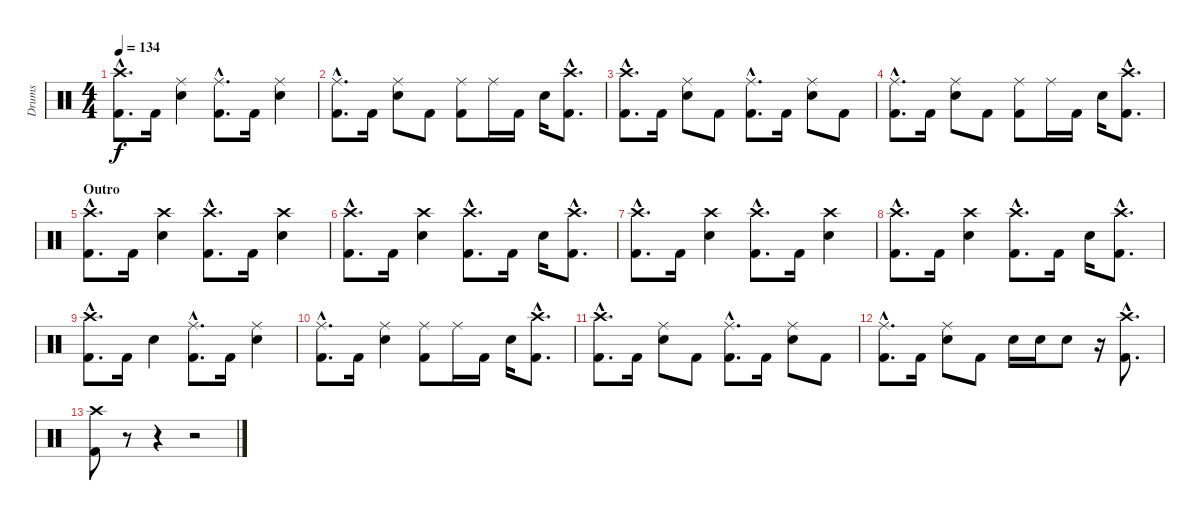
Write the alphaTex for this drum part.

\track ("Drums" "Drums") {instrument percussion}
\staff {score}
\articulation defaults
\ts (4 4)
\tempo 134
\clef neutral
\ks c
("Crash high (hit)"{hac} "Kick (hit) 2"{hac}).8{d dy f} "Kick (hit) 2".16 ("Ride (middle)" "Electric Snare (hit)").4 ("Ride (middle)"{hac} "Kick (hit) 2"{hac}).8{d} "Kick (hit) 2".16 ("Ride (middle)" "Electric Snare (hit)").4 |
("Ride (middle)"{hac} "Kick (hit) 2"{hac}).8{d} "Kick (hit) 2".16 ("Ride (middle)" "Electric Snare (hit)").8 "Kick (hit) 2".8 ("Ride (middle)" "Kick (hit) 2").8 "Ride (middle)".16 "Kick (hit) 2".16 "Electric Snare (hit)".16 ("Crash high (hit)"{hac} "Kick (hit) 2"{hac}).8{d} |
("Crash high (hit)"{hac} "Kick (hit) 2"{hac}).8{d} "Kick (hit) 2".16 ("Ride (middle)" "Electric Snare (hit)").8 "Kick (hit) 2".8 ("Ride (middle)"{hac} "Kick (hit) 2"{hac}).8{d} "Kick (hit) 2".16 ("Ride (middle)" "Electric Snare (hit)").8 "Kick (hit) 2".8 |
("Ride (middle)"{hac} "Kick (hit) 2"{hac}).8{d} "Kick (hit) 2".16 ("Ride (middle)" "Electric Snare (hit)").8 "Kick (hit) 2".8 ("Ride (middle)" "Kick (hit) 2").8 "Ride (middle)".16 "Kick (hit) 2".16 "Electric Snare (hit)".16 ("Crash high (hit)"{hac} "Kick (hit) 2"{hac}).8{d} |
\section ("" "Outro")
("Crash high (hit)"{hac} "Kick (hit) 2"{hac}).8{d} "Kick (hit) 2".16 ("Crash high (hit)" "Electric Snare (hit)").4 ("Crash high (hit)"{hac} "Kick (hit) 2"{hac}).8{d} "Kick (hit) 2".16 ("Crash high (hit)" "Electric Snare (hit)").4 |
("Crash high (hit)"{hac} "Kick (hit) 2"{hac}).8{d} "Kick (hit) 2".16 ("Crash high (hit)" "Electric Snare (hit)").4 ("Crash high (hit)"{hac} "Kick (hit) 2"{hac}).8{d} "Kick (hit) 2".16 "Electric Snare (hit)".16 ("Crash high (hit)"{hac} "Kick (hit) 2"{hac}).8{d} |
("Crash high (hit)"{hac} "Kick (hit) 2"{hac}).8{d} "Kick (hit) 2".16 ("Crash high (hit)" "Electric Snare (hit)").4 ("Crash high (hit)"{hac} "Kick (hit) 2"{hac}).8{d} "Kick (hit) 2".16 ("Crash high (hit)" "Electric Snare (hit)").4 |
("Crash high (hit)"{hac} "Kick (hit) 2"{hac}).8{d} "Kick (hit) 2".16 ("Crash high (hit)" "Electric Snare (hit)").4 ("Crash high (hit)"{hac} "Kick (hit) 2"{hac}).8{d} "Kick (hit) 2".16 "Electric Snare (hit)".16 ("Crash high (hit)"{hac} "Kick (hit) 2"{hac}).8{d} |
("Crash high (hit)"{hac} "Kick (hit) 2"{hac}).8{d} "Kick (hit) 2".16 "Electric Snare (hit)".4 ("Ride (middle)"{hac} "Kick (hit) 2"{hac}).8{d} "Kick (hit) 2".16 ("Ride (middle)" "Electric Snare (hit)").4 |
("Ride (middle)"{hac} "Kick (hit) 2"{hac}).8{d} "Kick (hit) 2".16 ("Ride (middle)" "Electric Snare (hit)").4 ("Ride (middle)" "Kick (hit) 2").8 "Ride (middle)".16 "Kick (hit) 2".16 "Electric Snare (hit)".16 ("Crash high (hit)"{hac} "Kick (hit) 2"{hac}).8{d} |
("Crash high (hit)"{hac} "Kick (hit) 2"{hac}).8{d} "Kick (hit) 2".16 ("Ride (middle)" "Electric Snare (hit)").8 "Kick (hit) 2".8 ("Ride (middle)"{hac} "Kick (hit) 2"{hac}).8{d} "Kick (hit) 2".16 ("Ride (middle)" "Electric Snare (hit)").8 "Kick (hit) 2".8 |
("Ride (middle)"{hac} "Kick (hit) 2"{hac}).8{d} "Kick (hit) 2".16 ("Ride (middle)" "Electric Snare (hit)").8 "Kick (hit) 2".8 "Electric Snare (hit)".16 "Electric Snare (hit)".16 "Electric Snare (hit)".8 r.16 ("Crash high (hit)"{hac} "Kick (hit) 2"{hac}).8{d} |
("Crash high (hit)" "Kick (hit) 2").8 r.8 r.4 r.2
